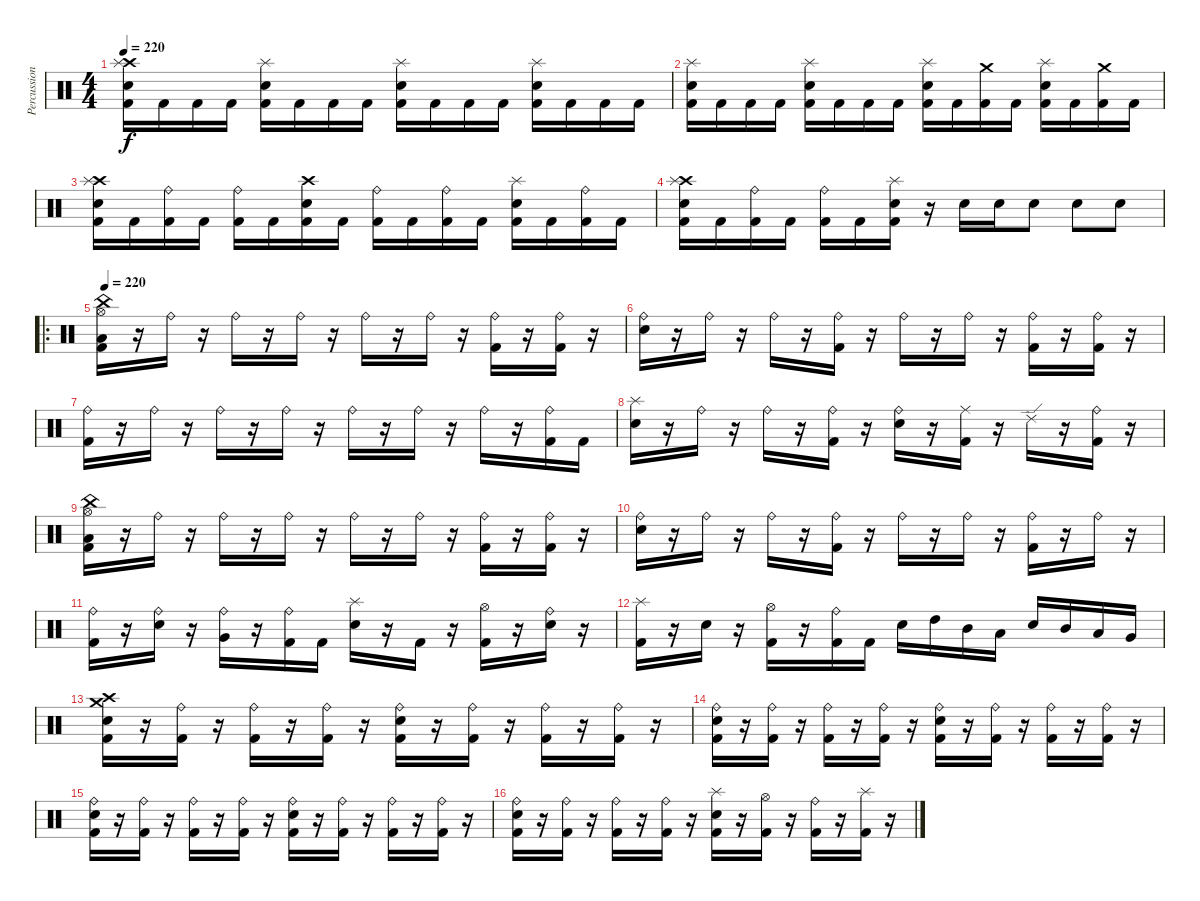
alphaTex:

\track ("Percussion" "Percussion") {instrument percussion}
\staff {score}
\articulation defaults
\ts (4 4)
\tempo 220
\clef neutral
\ks c
("Crash high (hit)" "Splash (hit)" "Electric Snare (hit)" "Kick (hit) 2").16{dy f} "Kick (hit) 2".16 "Kick (hit) 2".16 "Kick (hit) 2".16 ("Splash (hit)" "Electric Snare (hit)" "Kick (hit) 2").16 "Kick (hit) 2".16 "Kick (hit) 2".16 "Kick (hit) 2".16 ("Splash (hit)" "Electric Snare (hit)" "Kick (hit) 2").16 "Kick (hit) 2".16 "Kick (hit) 2".16 "Kick (hit) 2".16 ("Splash (hit)" "Electric Snare (hit)" "Kick (hit) 2").16 "Kick (hit) 2".16 "Kick (hit) 2".16 "Kick (hit) 2".16 |
("Splash (hit)" "Electric Snare (hit)" "Kick (hit) 2").16 "Kick (hit) 2".16 "Kick (hit) 2".16 "Kick (hit) 2".16 ("Splash (hit)" "Electric Snare (hit)" "Kick (hit) 2").16 "Kick (hit) 2".16 "Kick (hit) 2".16 "Kick (hit) 2".16 ("Splash (hit)" "Electric Snare (hit)" "Kick (hit) 2").16 "Kick (hit) 2".16 ("Crash medium (hit)" "Kick (hit) 2").16 "Kick (hit) 2".16 ("Splash (hit)" "Electric Snare (hit)" "Kick (hit) 2").16 "Kick (hit) 2".16 ("Crash medium (hit)" "Kick (hit) 2").16 "Kick (hit) 2".16 |
("Crash high (hit)" "Splash (hit)" "Electric Snare (hit)" "Kick (hit) 2").16 "Kick (hit) 2".16 ("Ride (bell)" "Kick (hit) 2").16 "Kick (hit) 2".16 ("Ride (bell)" "Kick (hit) 2").16 "Kick (hit) 2".16 ("Crash high (hit)" "Electric Snare (hit)" "Kick (hit) 2").16 "Kick (hit) 2".16 ("Ride (bell)" "Kick (hit) 2").16 "Kick (hit) 2".16 ("Ride (bell)" "Kick (hit) 2").16 "Kick (hit) 2".16 ("Splash (hit)" "Electric Snare (hit)" "Kick (hit) 2").16 "Kick (hit) 2".16 ("Ride (bell)" "Kick (hit) 2").16 "Kick (hit) 2".16 |
("Crash high (hit)" "Splash (hit)" "Electric Snare (hit)" "Kick (hit) 2").16 "Kick (hit) 2".16 ("Ride (bell)" "Kick (hit) 2").16 "Kick (hit) 2".16 ("Ride (bell)" "Kick (hit) 2").16 "Kick (hit) 2".16 ("Splash (hit)" "Electric Snare (hit)" "Kick (hit) 2").16 r.16 "Electric Snare (hit)".16 "Electric Snare (hit)".16 "Electric Snare (hit)".8 "Electric Snare (hit)".8 "Electric Snare (hit)".8 |
\ro
\tempo 220
("China (hit)" "Hi-Hat (open)" "Low Floor Tom (hit)" "Kick (hit) 2").16 r.16 "Ride (bell)".16 r.16 "Ride (bell)".16 r.16 "Ride (bell)".16 r.16 "Ride (bell)".16 r.16 "Ride (bell)".16 r.16 ("Ride (bell)" "Kick (hit) 2").16 r.16 ("Ride (bell)" "Kick (hit) 2").16 r.16 |
("Ride (bell)" "Electric Snare (hit)").16 r.16 "Ride (bell)".16 r.16 "Ride (bell)".16 r.16 ("Ride (bell)" "Kick (hit) 2").16 r.16 "Ride (bell)".16 r.16 "Ride (bell)".16 r.16 ("Ride (bell)" "Kick (hit) 2").16 r.16 ("Ride (bell)" "Kick (hit) 2").16 r.16 |
("Ride (bell)" "Kick (hit) 2").16 r.16 "Ride (bell)".16 r.16 "Ride (bell)".16 r.16 "Ride (bell)".16 r.16 "Ride (bell)".16 r.16 "Ride (bell)".16 r.16 "Ride (bell)".16 r.16 ("Ride (bell)" "Kick (hit) 2").16 "Kick (hit) 2".16 |
("Splash (hit)" "Electric Snare (hit)").16 r.16 "Ride (bell)".16 r.16 "Ride (bell)".16 r.16 ("Ride (bell)" "Kick (hit) 2").16 r.16 ("Ride (bell)" "Electric Snare (hit)").16 r.16 ("Ride (middle)" "Kick (hit) 2").16 r.16 "Ride (edge) 2".16 r.16 ("Ride (bell)" "Kick (hit) 2").16 r.16 |
("China (hit)" "Hi-Hat (open)" "Low Floor Tom (hit)" "Kick (hit) 2").16 r.16 "Ride (bell)".16 r.16 "Ride (bell)".16 r.16 "Ride (bell)".16 r.16 "Ride (bell)".16 r.16 "Ride (bell)".16 r.16 ("Ride (bell)" "Kick (hit) 2").16 r.16 ("Ride (bell)" "Kick (hit) 2").16 r.16 |
("Ride (bell)" "Electric Snare (hit)").16 r.16 "Ride (bell)".16 r.16 "Ride (bell)".16 r.16 ("Ride (bell)" "Kick (hit) 2").16 r.16 "Ride (bell)".16 r.16 "Ride (bell)".16 r.16 ("Ride (bell)" "Kick (hit) 2").16 r.16 "Ride (bell)".16 r.16 |
("Ride (bell)" "Kick (hit) 2").16 r.16 ("Ride (bell)" "Electric Snare (hit)").16 r.16 ("Ride (bell)" "Very Low Tom (hit)").16 r.16 ("Ride (bell)" "Kick (hit) 2").16 "Kick (hit) 2".16 ("Splash (hit)" "Electric Snare (hit)").16 r.16 "Kick (hit) 2".16 r.16 ("Hi-Hat (open)" "Kick (hit) 2").16 r.16 ("Ride (bell)" "Electric Snare (hit)").16 r.16 |
("Splash (hit)" "Kick (hit) 2").16 r.16 "Electric Snare (hit)".16 r.16 ("Hi-Hat (open)" "Kick (hit) 2").16 r.16 ("Ride (bell)" "Kick (hit) 2").16 "Kick (hit) 2".16 "Electric Snare (hit)".16 "High Tom (hit)".16 "Mid Tom (hit)".16 "Low Tom (hit)".16 "Electric Snare (hit)".16 "Mid Tom (hit)".16 "Low Tom (hit)".16 "Very Low Tom (hit)".16 |
("Crash high (hit)" "Crash medium (hit)" "Electric Snare (hit)" "Kick (hit) 2").16 r.16 ("Ride (bell)" "Kick (hit) 2").16 r.16 ("Ride (bell)" "Kick (hit) 2").16 r.16 ("Ride (bell)" "Kick (hit) 2").16 r.16 ("Ride (bell)" "Electric Snare (hit)" "Kick (hit) 2").16 r.16 ("Ride (bell)" "Kick (hit) 2").16 r.16 ("Ride (bell)" "Kick (hit) 2").16 r.16 ("Ride (bell)" "Kick (hit) 2").16 r.16 |
("Ride (bell)" "Electric Snare (hit)" "Kick (hit) 2").16 r.16 ("Ride (bell)" "Kick (hit) 2").16 r.16 ("Ride (bell)" "Kick (hit) 2").16 r.16 ("Ride (bell)" "Kick (hit) 2").16 r.16 ("Ride (bell)" "Electric Snare (hit)" "Kick (hit) 2").16 r.16 ("Ride (bell)" "Kick (hit) 2").16 r.16 ("Ride (bell)" "Kick (hit) 2").16 r.16 ("Ride (bell)" "Kick (hit) 2").16 r.16 |
("Ride (bell)" "Electric Snare (hit)" "Kick (hit) 2").16 r.16 ("Ride (bell)" "Kick (hit) 2").16 r.16 ("Ride (bell)" "Kick (hit) 2").16 r.16 ("Ride (bell)" "Kick (hit) 2").16 r.16 ("Ride (bell)" "Electric Snare (hit)" "Kick (hit) 2").16 r.16 ("Ride (bell)" "Kick (hit) 2").16 r.16 ("Ride (bell)" "Kick (hit) 2").16 r.16 ("Ride (bell)" "Kick (hit) 2").16 r.16 |
("Ride (bell)" "Electric Snare (hit)" "Kick (hit) 2").16 r.16 ("Ride (bell)" "Kick (hit) 2").16 r.16 ("Ride (bell)" "Kick (hit) 2").16 r.16 ("Ride (bell)" "Kick (hit) 2").16 r.16 ("Splash (hit)" "Electric Snare (hit)" "Kick (hit) 2").16 r.16 ("Hi-Hat (open)" "Kick (hit) 2").16 r.16 ("Ride (bell)" "Kick (hit) 2").16 r.16 ("Splash (hit)" "Kick (hit) 2").16 r.16
